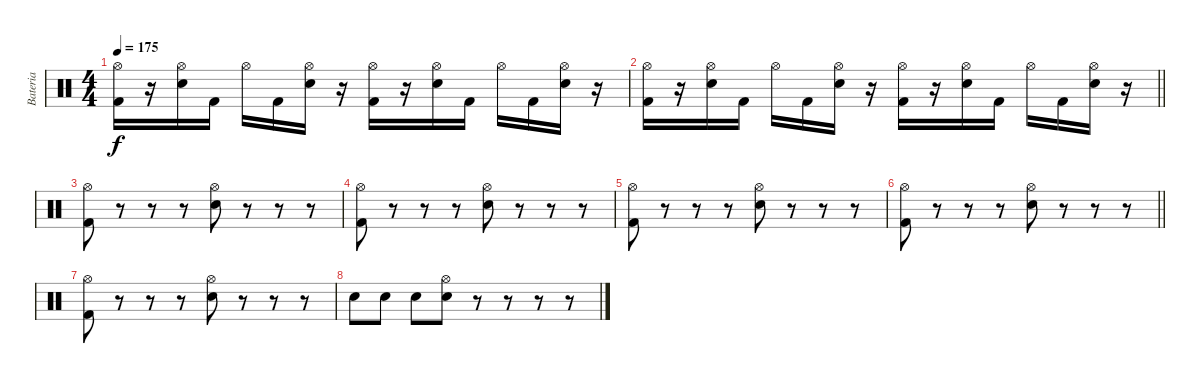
\track ("Bateria" "Bateria") {instrument percussion}
\staff {score}
\articulation defaults
\ts (4 4)
\tempo 175
\clef neutral
\ks c
("Hi-Hat (open)" "Kick (hit) 2").16{dy f} r.16 ("Hi-Hat (open)" "Snare (hit) 2").16 "Kick (hit) 2".16 "Hi-Hat (open)".16 "Kick (hit) 2".16 ("Hi-Hat (open)" "Snare (hit) 2").16 r.16 ("Hi-Hat (open)" "Kick (hit) 2").16 r.16 ("Hi-Hat (open)" "Snare (hit) 2").16 "Kick (hit) 2".16 "Hi-Hat (open)".16 "Kick (hit) 2".16 ("Hi-Hat (open)" "Snare (hit) 2").16 r.16 |
\barLineRight lightlight
("Hi-Hat (open)" "Kick (hit) 2").16 r.16 ("Hi-Hat (open)" "Snare (hit) 2").16 "Kick (hit) 2".16 "Hi-Hat (open)".16 "Kick (hit) 2".16 ("Hi-Hat (open)" "Snare (hit) 2").16 r.16 ("Hi-Hat (open)" "Kick (hit) 2").16 r.16 ("Hi-Hat (open)" "Snare (hit) 2").16 "Kick (hit) 2".16 "Hi-Hat (open)".16 "Kick (hit) 2".16 ("Hi-Hat (open)" "Snare (hit) 2").16 r.16 |
("Hi-Hat (open)" "Kick (hit) 2").8 r.8 r.8 r.8 ("Hi-Hat (open)" "Snare (hit) 2").8 r.8 r.8 r.8 |
("Hi-Hat (open)" "Kick (hit) 2").8 r.8 r.8 r.8 ("Hi-Hat (open)" "Snare (hit) 2").8 r.8 r.8 r.8 |
("Hi-Hat (open)" "Kick (hit) 2").8 r.8 r.8 r.8 ("Hi-Hat (open)" "Snare (hit) 2").8 r.8 r.8 r.8 |
\barLineRight lightlight
("Hi-Hat (open)" "Kick (hit) 2").8 r.8 r.8 r.8 ("Hi-Hat (open)" "Snare (hit) 2").8 r.8 r.8 r.8 |
("Hi-Hat (open)" "Kick (hit) 2").8 r.8 r.8 r.8 ("Hi-Hat (open)" "Snare (hit) 2").8 r.8 r.8 r.8 |
"Snare (hit) 2".8 "Snare (hit) 2".8 "Snare (hit) 2".8 ("Hi-Hat (open)" "Snare (hit) 2").8 r.8 r.8 r.8 r.8
